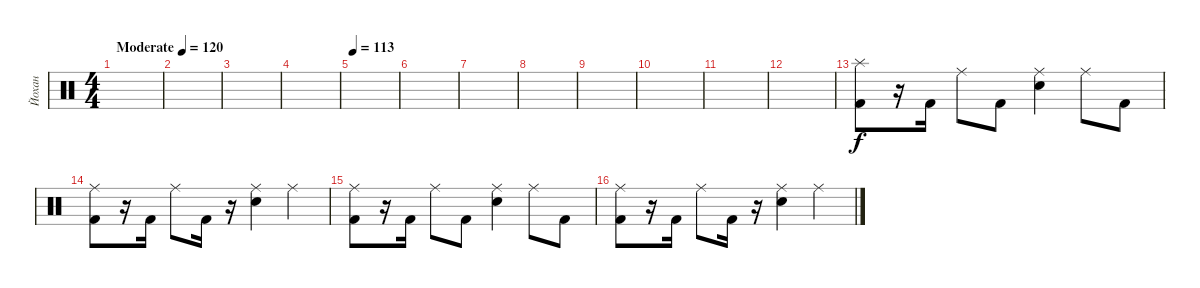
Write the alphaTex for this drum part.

\track ("Йохан" "Йохан") {instrument percussion}
\staff {score}
\articulation defaults
\ts (4 4)
\tempo (120 "Moderate")
\clef neutral
\ks c
|
|
|
|
\tempo 113
|
|
|
|
|
|
|
|
("Splash (hit)" "Kick (hit) 2").8 r.16 "Kick (hit) 2".16 "Ride (middle)".8 "Kick (hit) 2".8 ("Ride (middle)" "Snare (hit) 2").4 "Ride (middle)".8 "Kick (hit) 2".8 |
("Ride (middle)" "Kick (hit) 2").8 r.16 "Kick (hit) 2".16 "Ride (middle)".8 "Kick (hit) 2".16 r.16 ("Ride (middle)" "Snare (hit) 2").4 "Ride (middle)".4 |
("Ride (middle)" "Kick (hit) 2").8 r.16 "Kick (hit) 2".16 "Ride (middle)".8 "Kick (hit) 2".8 ("Ride (middle)" "Snare (hit) 2").4 "Ride (middle)".8 "Kick (hit) 2".8 |
("Ride (middle)" "Kick (hit) 2").8 r.16 "Kick (hit) 2".16 "Ride (middle)".8 "Kick (hit) 2".16 r.16 ("Ride (middle)" "Snare (hit) 2").4 "Ride (middle)".4
